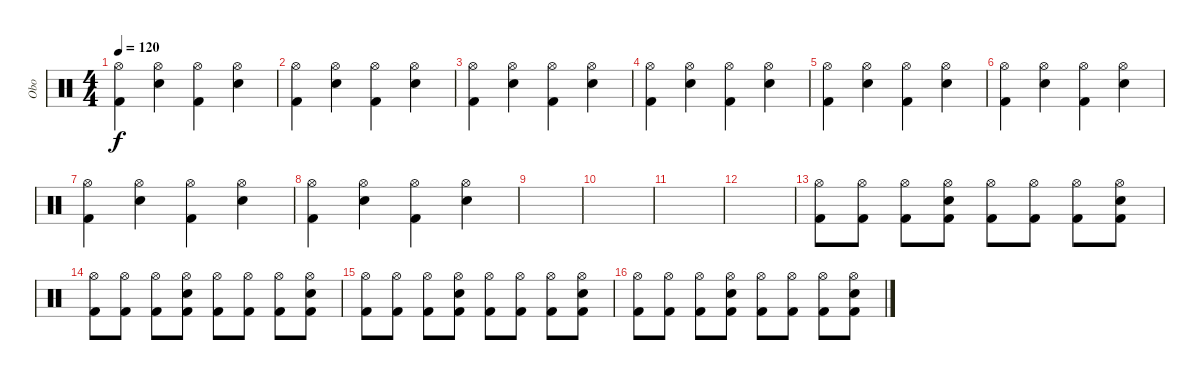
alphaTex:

\track ("Obo" "Obo") {instrument percussion}
\staff {score}
\articulation defaults
\ts (4 4)
\tempo 120
\clef neutral
\ks c
("Kick (hit) 2" "Hi-Hat (open)").4{dy f} ("Snare (hit) 2" "Hi-Hat (open)").4 ("Kick (hit) 2" "Hi-Hat (open)").4 ("Snare (hit) 2" "Hi-Hat (open)").4 |
("Kick (hit) 2" "Hi-Hat (open)").4 ("Snare (hit) 2" "Hi-Hat (open)").4 ("Kick (hit) 2" "Hi-Hat (open)").4 ("Snare (hit) 2" "Hi-Hat (open)").4 |
("Kick (hit) 2" "Hi-Hat (open)").4 ("Snare (hit) 2" "Hi-Hat (open)").4 ("Kick (hit) 2" "Hi-Hat (open)").4 ("Snare (hit) 2" "Hi-Hat (open)").4 |
("Kick (hit) 2" "Hi-Hat (open)").4 ("Snare (hit) 2" "Hi-Hat (open)").4 ("Kick (hit) 2" "Hi-Hat (open)").4 ("Snare (hit) 2" "Hi-Hat (open)").4 |
("Kick (hit) 2" "Hi-Hat (open)").4 ("Snare (hit) 2" "Hi-Hat (open)").4 ("Kick (hit) 2" "Hi-Hat (open)").4 ("Snare (hit) 2" "Hi-Hat (open)").4 |
("Kick (hit) 2" "Hi-Hat (open)").4 ("Snare (hit) 2" "Hi-Hat (open)").4 ("Kick (hit) 2" "Hi-Hat (open)").4 ("Snare (hit) 2" "Hi-Hat (open)").4 |
("Kick (hit) 2" "Hi-Hat (open)").4 ("Snare (hit) 2" "Hi-Hat (open)").4 ("Kick (hit) 2" "Hi-Hat (open)").4 ("Snare (hit) 2" "Hi-Hat (open)").4 |
("Kick (hit) 2" "Hi-Hat (open)").4 ("Snare (hit) 2" "Hi-Hat (open)").4 ("Kick (hit) 2" "Hi-Hat (open)").4 ("Snare (hit) 2" "Hi-Hat (open)").4 |
|
|
|
|
("Kick (hit) 2" "Hi-Hat (open)").8 ("Kick (hit) 2" "Hi-Hat (open)").8 ("Kick (hit) 2" "Hi-Hat (open)").8 ("Snare (hit) 2" "Kick (hit) 2" "Hi-Hat (open)").8 ("Kick (hit) 2" "Hi-Hat (open)").8 ("Kick (hit) 2" "Hi-Hat (open)").8 ("Kick (hit) 2" "Hi-Hat (open)").8 ("Snare (hit) 2" "Kick (hit) 2" "Hi-Hat (open)").8 |
("Kick (hit) 2" "Hi-Hat (open)").8 ("Kick (hit) 2" "Hi-Hat (open)").8 ("Kick (hit) 2" "Hi-Hat (open)").8 ("Snare (hit) 2" "Kick (hit) 2" "Hi-Hat (open)").8 ("Kick (hit) 2" "Hi-Hat (open)").8 ("Kick (hit) 2" "Hi-Hat (open)").8 ("Kick (hit) 2" "Hi-Hat (open)").8 ("Snare (hit) 2" "Kick (hit) 2" "Hi-Hat (open)").8 |
("Kick (hit) 2" "Hi-Hat (open)").8 ("Kick (hit) 2" "Hi-Hat (open)").8 ("Kick (hit) 2" "Hi-Hat (open)").8 ("Snare (hit) 2" "Kick (hit) 2" "Hi-Hat (open)").8 ("Kick (hit) 2" "Hi-Hat (open)").8 ("Kick (hit) 2" "Hi-Hat (open)").8 ("Kick (hit) 2" "Hi-Hat (open)").8 ("Snare (hit) 2" "Kick (hit) 2" "Hi-Hat (open)").8 |
("Kick (hit) 2" "Hi-Hat (open)").8 ("Kick (hit) 2" "Hi-Hat (open)").8 ("Kick (hit) 2" "Hi-Hat (open)").8 ("Snare (hit) 2" "Kick (hit) 2" "Hi-Hat (open)").8 ("Kick (hit) 2" "Hi-Hat (open)").8 ("Kick (hit) 2" "Hi-Hat (open)").8 ("Kick (hit) 2" "Hi-Hat (open)").8 ("Snare (hit) 2" "Kick (hit) 2" "Hi-Hat (open)").8
